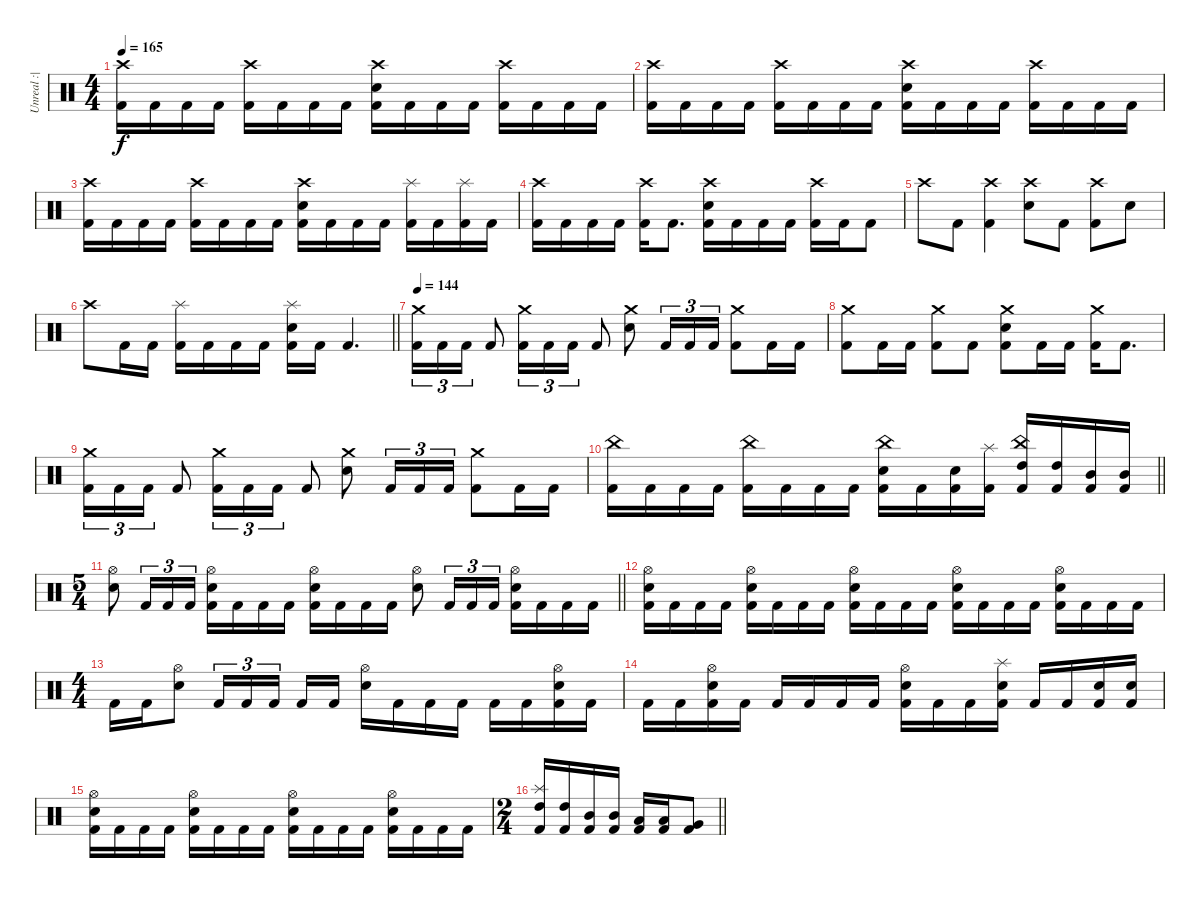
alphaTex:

\track ("Unreal :|" "Unreal :|") {instrument percussion}
\staff {score}
\articulation defaults
\ts (4 4)
\section ("" "")
\tempo 165
\clef neutral
\ks c
("Crash high (hit)" "Kick (hit) 2").16{dy f} "Kick (hit) 2".16 "Kick (hit) 2".16 "Kick (hit) 2".16 ("Crash high (hit)" "Kick (hit) 2").16 "Kick (hit) 2".16 "Kick (hit) 2".16 "Kick (hit) 2".16 ("Crash high (hit)" "Electric Snare (hit)" "Kick (hit) 2").16 "Kick (hit) 2".16 "Kick (hit) 2".16 "Kick (hit) 2".16 ("Crash high (hit)" "Kick (hit) 2").16 "Kick (hit) 2".16 "Kick (hit) 2".16 "Kick (hit) 2".16 |
("Crash high (hit)" "Kick (hit) 2").16 "Kick (hit) 2".16 "Kick (hit) 2".16 "Kick (hit) 2".16 ("Crash high (hit)" "Kick (hit) 2").16 "Kick (hit) 2".16 "Kick (hit) 2".16 "Kick (hit) 2".16 ("Crash high (hit)" "Electric Snare (hit)" "Kick (hit) 2").16 "Kick (hit) 2".16 "Kick (hit) 2".16 "Kick (hit) 2".16 ("Crash high (hit)" "Kick (hit) 2").16 "Kick (hit) 2".16 "Kick (hit) 2".16 "Kick (hit) 2".16 |
("Crash high (hit)" "Kick (hit) 2").16 "Kick (hit) 2".16 "Kick (hit) 2".16 "Kick (hit) 2".16 ("Crash high (hit)" "Kick (hit) 2").16 "Kick (hit) 2".16 "Kick (hit) 2".16 "Kick (hit) 2".16 ("Crash high (hit)" "Electric Snare (hit)" "Kick (hit) 2").16 "Kick (hit) 2".16 "Kick (hit) 2".16 "Kick (hit) 2".16 ("Splash (hit)" "Kick (hit) 2").16 "Kick (hit) 2".16 ("Splash (hit)" "Kick (hit) 2").16 "Kick (hit) 2".16 |
("Crash high (hit)" "Kick (hit) 2").16 "Kick (hit) 2".16 "Kick (hit) 2".16 "Kick (hit) 2".16 ("Crash high (hit)" "Kick (hit) 2").16 "Kick (hit) 2".8{d} ("Crash high (hit)" "Electric Snare (hit)" "Kick (hit) 2").16 "Kick (hit) 2".16 "Kick (hit) 2".16 "Kick (hit) 2".16 ("Crash high (hit)" "Kick (hit) 2").16 "Kick (hit) 2".16 "Kick (hit) 2".8 |
"Crash high (hit)".8 "Kick (hit) 2".8 ("Crash high (hit)" "Kick (hit) 2").4 ("Crash high (hit)" "Electric Snare (hit)").8 "Kick (hit) 2".8 ("Crash high (hit)" "Kick (hit) 2").8 "Electric Snare (hit)".8 |
\barLineRight lightlight "Crash high (hit)".8 "Kick (hit) 2".16 "Kick (hit) 2".16
("Splash (hit)" "Kick (hit) 2").16 "Kick (hit) 2".16 "Kick (hit) 2".16 "Kick (hit) 2".16 ("Splash (hit)" "Electric Snare (hit)" "Kick (hit) 2").16 "Kick (hit) 2".16 "Kick (hit) 2".4{d} |
\section ("" "")
\tempo 144
("Crash medium (hit)" "Kick (hit) 2").16{tu (3 2)} "Kick (hit) 2".16{tu (3 2)} "Kick (hit) 2".16{tu (3 2)} "Kick (hit) 2".8 ("Crash medium (hit)" "Kick (hit) 2").16{tu (3 2)} "Kick (hit) 2".16{tu (3 2)} "Kick (hit) 2".16{tu (3 2)} "Kick (hit) 2".8 ("Crash medium (hit)" "Electric Snare (hit)").8 "Kick (hit) 2".16{tu (3 2)} "Kick (hit) 2".16{tu (3 2)} "Kick (hit) 2".16{tu (3 2)} ("Crash medium (hit)" "Kick (hit) 2").8 "Kick (hit) 2".16 "Kick (hit) 2".16 |
("Crash medium (hit)" "Kick (hit) 2").8 "Kick (hit) 2".16 "Kick (hit) 2".16 ("Crash medium (hit)" "Kick (hit) 2").8 "Kick (hit) 2".8 ("Crash medium (hit)" "Electric Snare (hit)" "Kick (hit) 2").8 "Kick (hit) 2".16 "Kick (hit) 2".16 ("Crash medium (hit)" "Kick (hit) 2").16 "Kick (hit) 2".8{d} |
("Crash medium (hit)" "Kick (hit) 2").16{tu (3 2)} "Kick (hit) 2".16{tu (3 2)} "Kick (hit) 2".16{tu (3 2)} "Kick (hit) 2".8 ("Crash medium (hit)" "Kick (hit) 2").16{tu (3 2)} "Kick (hit) 2".16{tu (3 2)} "Kick (hit) 2".16{tu (3 2)} "Kick (hit) 2".8 ("Crash medium (hit)" "Electric Snare (hit)").8 "Kick (hit) 2".16{tu (3 2)} "Kick (hit) 2".16{tu (3 2)} "Kick (hit) 2".16{tu (3 2)} ("Crash medium (hit)" "Kick (hit) 2").8 "Kick (hit) 2".16 "Kick (hit) 2".16 |
\barLineRight lightlight
("China (hit)" "Kick (hit) 2").16 "Kick (hit) 2".16 "Kick (hit) 2".16 "Kick (hit) 2".16 ("China (hit)" "Kick (hit) 2").16 "Kick (hit) 2".16 "Kick (hit) 2".16 "Kick (hit) 2".16 ("China (hit)" "Electric Snare (hit)" "Kick (hit) 2").16 "Kick (hit) 2".16 ("Electric Snare (hit)" "Kick (hit) 2").16 ("Splash (hit)" "Kick (hit) 2").16 ("China (hit)" "High Tom (hit)" "Kick (hit) 2").16 ("High Tom (hit)" "Kick (hit) 2").16 ("Mid Tom (hit)" "Kick (hit) 2").16 ("Mid Tom (hit)" "Kick (hit) 2").16 |
\ts (5 4)
\section ("" "")
\barLineRight lightlight
("Hi-Hat (open)" "Electric Snare (hit)").8 "Kick (hit) 2".16{tu (3 2)} "Kick (hit) 2".16{tu (3 2)} "Kick (hit) 2".16{tu (3 2)} ("Hi-Hat (open)" "Electric Snare (hit)" "Kick (hit) 2").16 "Kick (hit) 2".16 "Kick (hit) 2".16 "Kick (hit) 2".16 ("Hi-Hat (open)" "Electric Snare (hit)" "Kick (hit) 2").16 "Kick (hit) 2".16 "Kick (hit) 2".16 "Kick (hit) 2".16 ("Hi-Hat (open)" "Electric Snare (hit)").8 "Kick (hit) 2".16{tu (3 2)} "Kick (hit) 2".16{tu (3 2)} "Kick (hit) 2".16{tu (3 2)} ("Hi-Hat (open)" "Electric Snare (hit)" "Kick (hit) 2").16 "Kick (hit) 2".16 "Kick (hit) 2".16 "Kick (hit) 2".16 |
("Hi-Hat (open)" "Electric Snare (hit)" "Kick (hit) 2").16 "Kick (hit) 2".16 "Kick (hit) 2".16 "Kick (hit) 2".16 ("Hi-Hat (open)" "Electric Snare (hit)" "Kick (hit) 2").16 "Kick (hit) 2".16 "Kick (hit) 2".16 "Kick (hit) 2".16 ("Hi-Hat (open)" "Electric Snare (hit)" "Kick (hit) 2").16 "Kick (hit) 2".16 "Kick (hit) 2".16 "Kick (hit) 2".16 ("Hi-Hat (open)" "Electric Snare (hit)" "Kick (hit) 2").16 "Kick (hit) 2".16 "Kick (hit) 2".16 "Kick (hit) 2".16 ("Hi-Hat (open)" "Electric Snare (hit)" "Kick (hit) 2").16 "Kick (hit) 2".16 "Kick (hit) 2".16 "Kick (hit) 2".16 |
\ts (4 4)
"Kick (hit) 2".16 "Kick (hit) 2".16 ("Hi-Hat (open)" "Electric Snare (hit)").8 "Kick (hit) 2".16{tu (3 2)} "Kick (hit) 2".16{tu (3 2)} "Kick (hit) 2".16{tu (3 2) beam splitsecondary} "Kick (hit) 2".16 "Kick (hit) 2".16 ("Hi-Hat (open)" "Electric Snare (hit)").16 "Kick (hit) 2".16 "Kick (hit) 2".16 "Kick (hit) 2".16 "Kick (hit) 2".16 "Kick (hit) 2".16 ("Hi-Hat (open)" "Electric Snare (hit)" "Kick (hit) 2").16 "Kick (hit) 2".16 |
"Kick (hit) 2".16 "Kick (hit) 2".16 ("Hi-Hat (open)" "Electric Snare (hit)" "Kick (hit) 2").16 "Kick (hit) 2".16 "Kick (hit) 2".16 "Kick (hit) 2".16 "Kick (hit) 2".16 "Kick (hit) 2".16 ("Hi-Hat (open)" "Electric Snare (hit)" "Kick (hit) 2").16 "Kick (hit) 2".16 "Kick (hit) 2".16 ("Splash (hit)" "Electric Snare (hit)" "Kick (hit) 2").16 "Kick (hit) 2".16 "Kick (hit) 2".16 ("Electric Snare (hit)" "Kick (hit) 2").16 ("Electric Snare (hit)" "Kick (hit) 2").16 |
("Hi-Hat (open)" "Electric Snare (hit)" "Kick (hit) 2").16 "Kick (hit) 2".16 "Kick (hit) 2".16 "Kick (hit) 2".16 ("Hi-Hat (open)" "Electric Snare (hit)" "Kick (hit) 2").16 "Kick (hit) 2".16 "Kick (hit) 2".16 "Kick (hit) 2".16 ("Hi-Hat (open)" "Electric Snare (hit)" "Kick (hit) 2").16 "Kick (hit) 2".16 "Kick (hit) 2".16 "Kick (hit) 2".16 ("Hi-Hat (open)" "Electric Snare (hit)" "Kick (hit) 2").16 "Kick (hit) 2".16 "Kick (hit) 2".16 "Kick (hit) 2".16 |
\ts (2 4)
\barLineRight lightlight
("Splash (hit)" "High Tom (hit)" "Kick (hit) 2").16 ("High Tom (hit)" "Kick (hit) 2").16 ("Mid Tom (hit)" "Kick (hit) 2").16 ("Mid Tom (hit)" "Kick (hit) 2").16 ("Low Tom (hit)" "Kick (hit) 2").16 ("Low Tom (hit)" "Kick (hit) 2").16 ("Very Low Tom (hit)" "Kick (hit) 2").8
